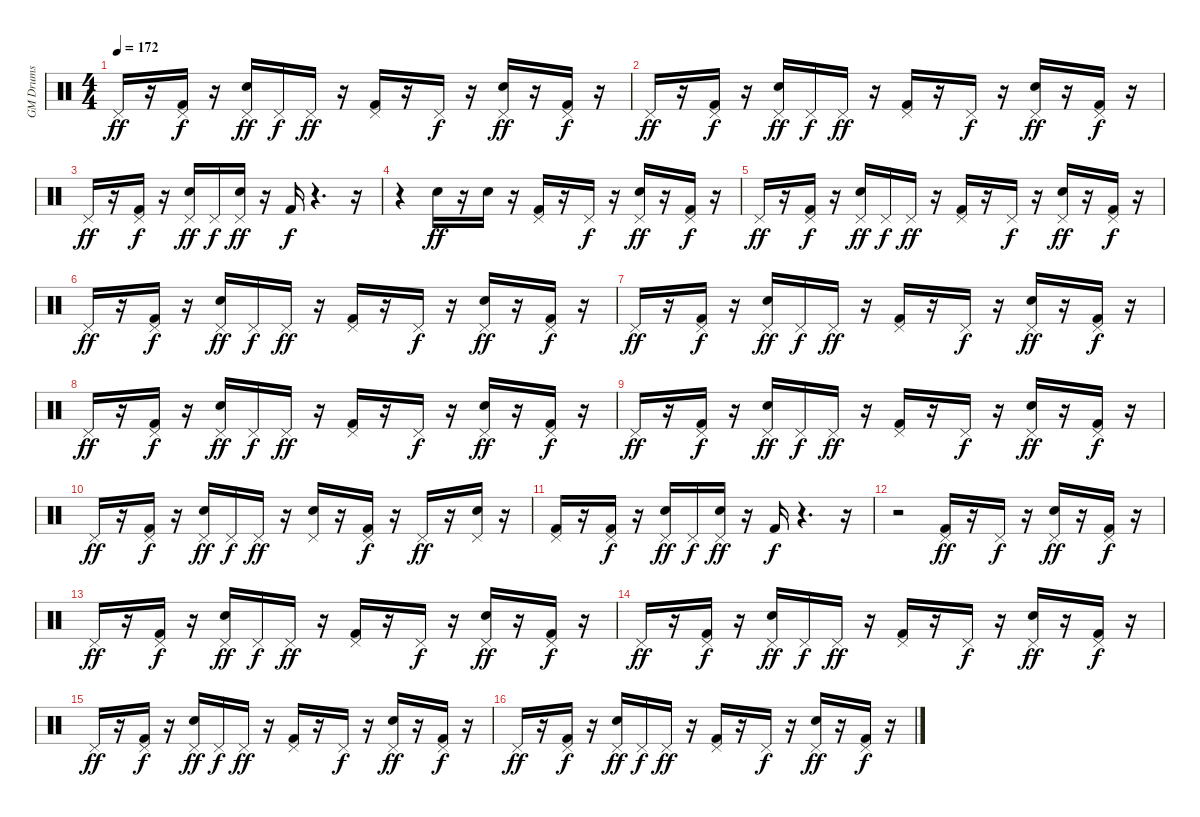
\track ("GM Drums" "GM Drums") {instrument percussion}
\staff {score}
\articulation defaults
\ts (4 4)
\tempo 172
\clef neutral
\ks c "Pedal Hi-Hat (hit)".16{dy ff}
r.16 ("Kick (hit) 2" "Pedal Hi-Hat (hit)").16{dy f} r.16 ("Snare (hit) 2" "Pedal Hi-Hat (hit)").16{dy ff} "Pedal Hi-Hat (hit)".16{dy f} "Pedal Hi-Hat (hit)".16{dy ff} r.16 ("Kick (hit) 2" "Pedal Hi-Hat (hit)").16 r.16 "Pedal Hi-Hat (hit)".16{dy f} r.16 ("Snare (hit) 2" "Pedal Hi-Hat (hit)").16{dy ff} r.16 ("Kick (hit) 2" "Pedal Hi-Hat (hit)").16{dy f} r.16 |
"Pedal Hi-Hat (hit)".16{dy ff} r.16 ("Kick (hit) 2" "Pedal Hi-Hat (hit)").16{dy f} r.16 ("Snare (hit) 2" "Pedal Hi-Hat (hit)").16{dy ff} "Pedal Hi-Hat (hit)".16{dy f} "Pedal Hi-Hat (hit)".16{dy ff} r.16 ("Kick (hit) 2" "Pedal Hi-Hat (hit)").16 r.16 "Pedal Hi-Hat (hit)".16{dy f} r.16 ("Snare (hit) 2" "Pedal Hi-Hat (hit)").16{dy ff} r.16 ("Kick (hit) 2" "Pedal Hi-Hat (hit)").16{dy f} r.16 |
"Pedal Hi-Hat (hit)".16{dy ff} r.16 ("Kick (hit) 2" "Pedal Hi-Hat (hit)").16{dy f} r.16 ("Snare (hit) 2" "Pedal Hi-Hat (hit)").16{dy ff} "Pedal Hi-Hat (hit)".16{dy f} ("Snare (hit) 2" "Pedal Hi-Hat (hit)").16{dy ff} r.16 "Kick (hit) 2".16{dy f} r.4{d} r.16 |
r.4 "Snare (hit) 2".16{dy ff} r.16 "Snare (hit) 2".16 r.16 ("Kick (hit) 2" "Pedal Hi-Hat (hit)").16 r.16 "Pedal Hi-Hat (hit)".16{dy f} r.16 ("Snare (hit) 2" "Pedal Hi-Hat (hit)").16{dy ff} r.16 ("Kick (hit) 2" "Pedal Hi-Hat (hit)").16{dy f} r.16 |
"Pedal Hi-Hat (hit)".16{dy ff} r.16 ("Kick (hit) 2" "Pedal Hi-Hat (hit)").16{dy f} r.16 ("Snare (hit) 2" "Pedal Hi-Hat (hit)").16{dy ff} "Pedal Hi-Hat (hit)".16{dy f} "Pedal Hi-Hat (hit)".16{dy ff} r.16 ("Kick (hit) 2" "Pedal Hi-Hat (hit)").16 r.16 "Pedal Hi-Hat (hit)".16{dy f} r.16 ("Snare (hit) 2" "Pedal Hi-Hat (hit)").16{dy ff} r.16 ("Kick (hit) 2" "Pedal Hi-Hat (hit)").16{dy f} r.16 |
"Pedal Hi-Hat (hit)".16{dy ff} r.16 ("Kick (hit) 2" "Pedal Hi-Hat (hit)").16{dy f} r.16 ("Snare (hit) 2" "Pedal Hi-Hat (hit)").16{dy ff} "Pedal Hi-Hat (hit)".16{dy f} "Pedal Hi-Hat (hit)".16{dy ff} r.16 ("Kick (hit) 2" "Pedal Hi-Hat (hit)").16 r.16 "Pedal Hi-Hat (hit)".16{dy f} r.16 ("Snare (hit) 2" "Pedal Hi-Hat (hit)").16{dy ff} r.16 ("Kick (hit) 2" "Pedal Hi-Hat (hit)").16{dy f} r.16 |
"Pedal Hi-Hat (hit)".16{dy ff} r.16 ("Kick (hit) 2" "Pedal Hi-Hat (hit)").16{dy f} r.16 ("Snare (hit) 2" "Pedal Hi-Hat (hit)").16{dy ff} "Pedal Hi-Hat (hit)".16{dy f} "Pedal Hi-Hat (hit)".16{dy ff} r.16 ("Kick (hit) 2" "Pedal Hi-Hat (hit)").16 r.16 "Pedal Hi-Hat (hit)".16{dy f} r.16 ("Snare (hit) 2" "Pedal Hi-Hat (hit)").16{dy ff} r.16 ("Kick (hit) 2" "Pedal Hi-Hat (hit)").16{dy f} r.16 |
"Pedal Hi-Hat (hit)".16{dy ff} r.16 ("Kick (hit) 2" "Pedal Hi-Hat (hit)").16{dy f} r.16 ("Snare (hit) 2" "Pedal Hi-Hat (hit)").16{dy ff} "Pedal Hi-Hat (hit)".16{dy f} "Pedal Hi-Hat (hit)".16{dy ff} r.16 ("Kick (hit) 2" "Pedal Hi-Hat (hit)").16 r.16 "Pedal Hi-Hat (hit)".16{dy f} r.16 ("Snare (hit) 2" "Pedal Hi-Hat (hit)").16{dy ff} r.16 ("Kick (hit) 2" "Pedal Hi-Hat (hit)").16{dy f} r.16 |
"Pedal Hi-Hat (hit)".16{dy ff} r.16 ("Kick (hit) 2" "Pedal Hi-Hat (hit)").16{dy f} r.16 ("Snare (hit) 2" "Pedal Hi-Hat (hit)").16{dy ff} "Pedal Hi-Hat (hit)".16{dy f} "Pedal Hi-Hat (hit)".16{dy ff} r.16 ("Kick (hit) 2" "Pedal Hi-Hat (hit)").16 r.16 "Pedal Hi-Hat (hit)".16{dy f} r.16 ("Snare (hit) 2" "Pedal Hi-Hat (hit)").16{dy ff} r.16 ("Kick (hit) 2" "Pedal Hi-Hat (hit)").16{dy f} r.16 |
"Pedal Hi-Hat (hit)".16{dy ff} r.16 ("Kick (hit) 2" "Pedal Hi-Hat (hit)").16{dy f} r.16 ("Snare (hit) 2" "Pedal Hi-Hat (hit)").16{dy ff} "Pedal Hi-Hat (hit)".16{dy f} "Pedal Hi-Hat (hit)".16{dy ff} r.16 ("Snare (hit) 2" "Pedal Hi-Hat (hit)").16 r.16 ("Kick (hit) 2" "Pedal Hi-Hat (hit)").16{dy f} r.16 "Pedal Hi-Hat (hit)".16{dy ff} r.16 ("Snare (hit) 2" "Pedal Hi-Hat (hit)").16 r.16 |
("Kick (hit) 2" "Pedal Hi-Hat (hit)").16 r.16 ("Kick (hit) 2" "Pedal Hi-Hat (hit)").16{dy f} r.16 ("Snare (hit) 2" "Pedal Hi-Hat (hit)").16{dy ff} "Pedal Hi-Hat (hit)".16{dy f} ("Snare (hit) 2" "Pedal Hi-Hat (hit)").16{dy ff} r.16 "Kick (hit) 2".16{dy f} r.4{d} r.16 |
r.2 ("Kick (hit) 2" "Pedal Hi-Hat (hit)").16{dy ff} r.16 "Pedal Hi-Hat (hit)".16{dy f} r.16 ("Snare (hit) 2" "Pedal Hi-Hat (hit)").16{dy ff} r.16 ("Kick (hit) 2" "Pedal Hi-Hat (hit)").16{dy f} r.16 |
"Pedal Hi-Hat (hit)".16{dy ff} r.16 ("Kick (hit) 2" "Pedal Hi-Hat (hit)").16{dy f} r.16 ("Snare (hit) 2" "Pedal Hi-Hat (hit)").16{dy ff} "Pedal Hi-Hat (hit)".16{dy f} "Pedal Hi-Hat (hit)".16{dy ff} r.16 ("Kick (hit) 2" "Pedal Hi-Hat (hit)").16 r.16 "Pedal Hi-Hat (hit)".16{dy f} r.16 ("Snare (hit) 2" "Pedal Hi-Hat (hit)").16{dy ff} r.16 ("Kick (hit) 2" "Pedal Hi-Hat (hit)").16{dy f} r.16 |
"Pedal Hi-Hat (hit)".16{dy ff} r.16 ("Kick (hit) 2" "Pedal Hi-Hat (hit)").16{dy f} r.16 ("Snare (hit) 2" "Pedal Hi-Hat (hit)").16{dy ff} "Pedal Hi-Hat (hit)".16{dy f} "Pedal Hi-Hat (hit)".16{dy ff} r.16 ("Kick (hit) 2" "Pedal Hi-Hat (hit)").16 r.16 "Pedal Hi-Hat (hit)".16{dy f} r.16 ("Snare (hit) 2" "Pedal Hi-Hat (hit)").16{dy ff} r.16 ("Kick (hit) 2" "Pedal Hi-Hat (hit)").16{dy f} r.16 |
"Pedal Hi-Hat (hit)".16{dy ff} r.16 ("Kick (hit) 2" "Pedal Hi-Hat (hit)").16{dy f} r.16 ("Snare (hit) 2" "Pedal Hi-Hat (hit)").16{dy ff} "Pedal Hi-Hat (hit)".16{dy f} "Pedal Hi-Hat (hit)".16{dy ff} r.16 ("Kick (hit) 2" "Pedal Hi-Hat (hit)").16 r.16 "Pedal Hi-Hat (hit)".16{dy f} r.16 ("Snare (hit) 2" "Pedal Hi-Hat (hit)").16{dy ff} r.16 ("Kick (hit) 2" "Pedal Hi-Hat (hit)").16{dy f} r.16 |
"Pedal Hi-Hat (hit)".16{dy ff} r.16 ("Kick (hit) 2" "Pedal Hi-Hat (hit)").16{dy f} r.16 ("Snare (hit) 2" "Pedal Hi-Hat (hit)").16{dy ff} "Pedal Hi-Hat (hit)".16{dy f} "Pedal Hi-Hat (hit)".16{dy ff} r.16 ("Kick (hit) 2" "Pedal Hi-Hat (hit)").16 r.16 "Pedal Hi-Hat (hit)".16{dy f} r.16 ("Snare (hit) 2" "Pedal Hi-Hat (hit)").16{dy ff} r.16 ("Kick (hit) 2" "Pedal Hi-Hat (hit)").16{dy f} r.16
